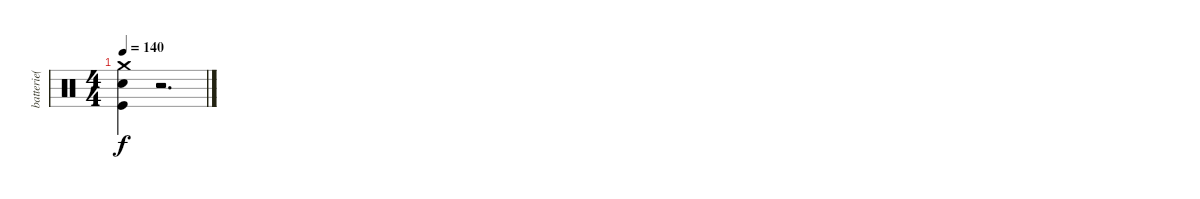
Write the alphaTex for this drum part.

\track ("batterie( Yureesh )" "batterie( ") {instrument percussion}
\staff {score}
\articulation defaults
\ts (4 4)
\tempo 140
\clef neutral
\ks c
("Crash medium (hit)" "Snare (hit) 2" "Kick (hit)").4{dy f} r.2{d}
